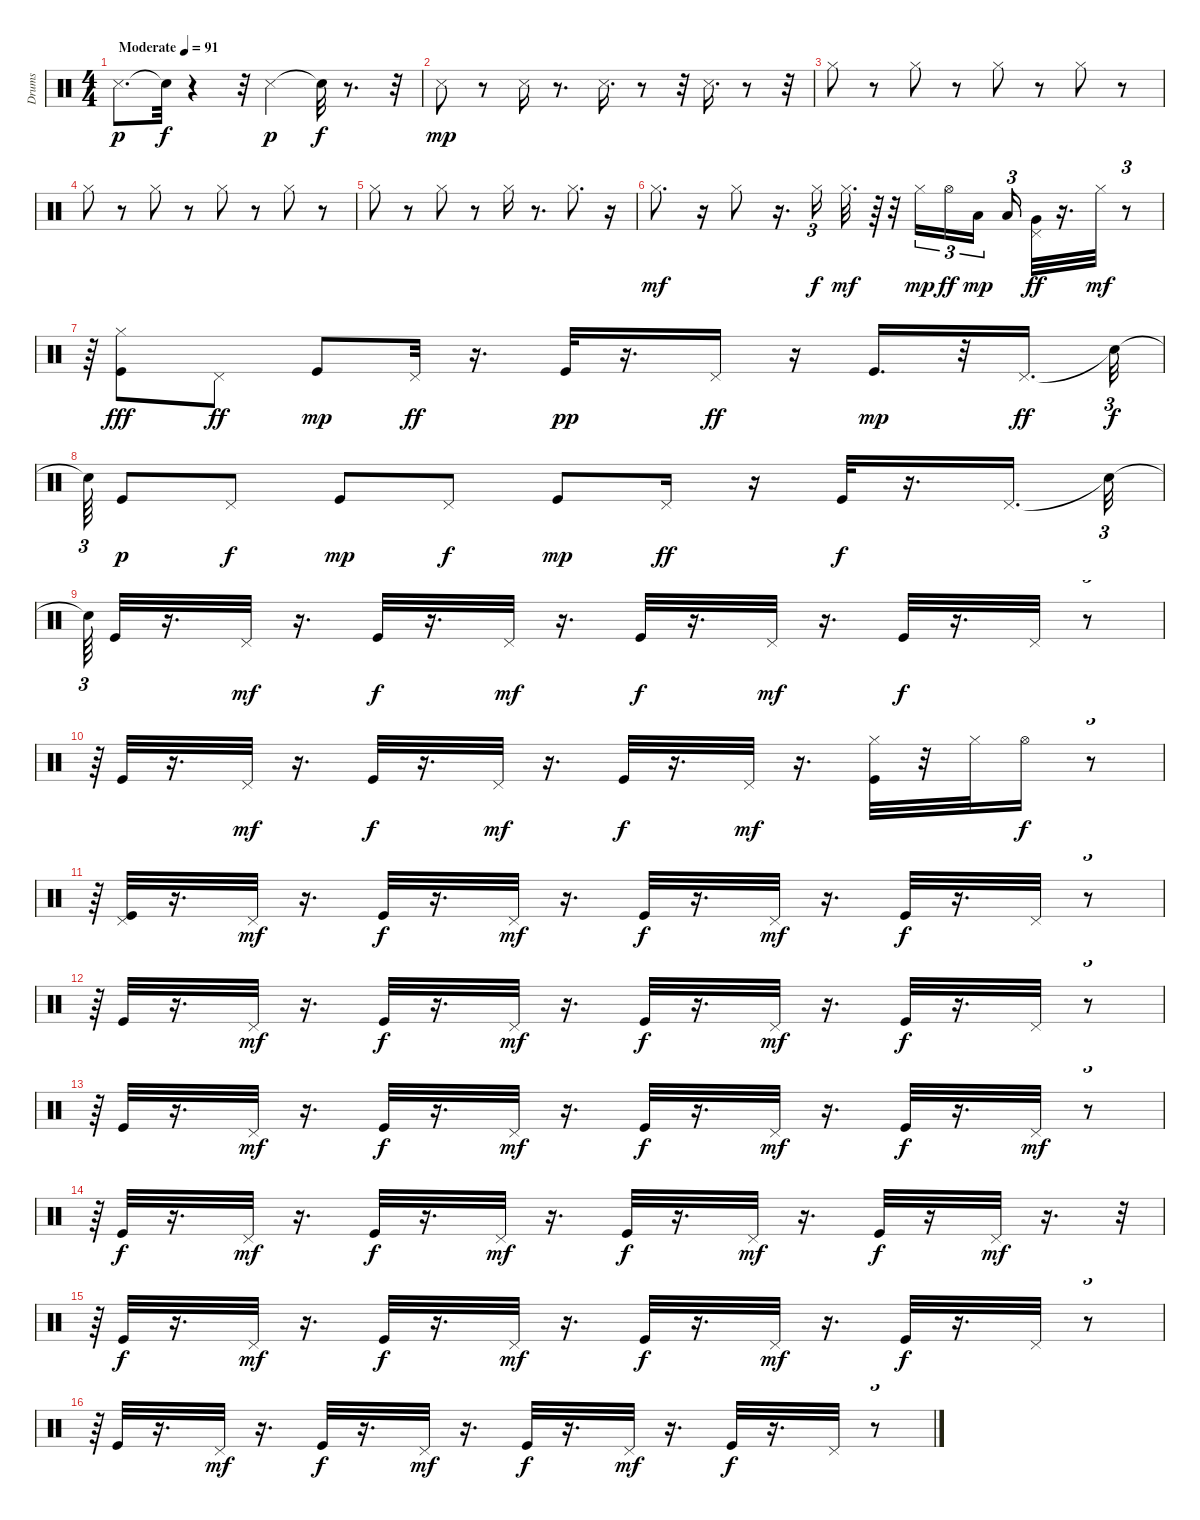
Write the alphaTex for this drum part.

\track ("Drums" "Drums") {instrument percussion}
\staff {score}
\articulation defaults
\ts (4 4)
\tempo (91 "Moderate")
\clef neutral
\ks c "Snare (side stick) 3".8{d dy p} "Snare (hit)"{t}.32{dy f}
r.4 r.32 "Snare (side stick) 3".4{dy p} "Snare (hit)"{t}.32{dy f} r.8{d} r.32 |
"Snare (side stick) 3".8{dy mp} r.8 "Snare (side stick) 3".16 r.8{d} "Snare (side stick) 3".16{d} r.8 r.32 "Snare (side stick) 3".16{d} r.8 r.32 |
"Hi-Hat (closed)".8 r.8 "Hi-Hat (closed)".8 r.8 "Hi-Hat (closed)".8 r.8 "Hi-Hat (closed)".8 r.8 |
"Hi-Hat (closed)".8 r.8 "Hi-Hat (closed)".8 r.8 "Hi-Hat (closed)".8 r.8 "Hi-Hat (closed)".8 r.8 |
"Hi-Hat (closed)".8 r.8 "Hi-Hat (closed)".8 r.8 "Hi-Hat (closed)".16 r.8{d} "Hi-Hat (closed)".8{d} r.16 |
"Hi-Hat (closed)".8{d dy mf} r.16 "Hi-Hat (closed)".8 r.16{d} "Hi-Hat (closed)".16{tu (3 2) dy f} "Hi-Hat (closed)".32{d dy mf} r.64 r.32 "Hi-Hat (closed)".16{tu (3 2) dy mp} "Hi-Hat (open)".16{tu (3 2) dy ff} "Low Tom (hit)".16{tu (3 2) dy mp} "Low Tom (hit)".16{tu (3 2)} ("Very Low Tom (hit)" "Pedal Hi-Hat (hit)").32{dy ff} r.16{d} "Hi-Hat (closed)".32{dy mf} r.8{tu (3 2)} |
r.64{tu (3 2)} ("Kick (hit)" "Hi-Hat (closed)").8{dy fff} "Pedal Hi-Hat (hit)".8{dy ff} "Kick (hit)".8{dy mp} "Pedal Hi-Hat (hit)".32{dy ff} r.16{d} "Kick (hit)".32{dy pp} r.16{d} "Pedal Hi-Hat (hit)".16{dy ff} r.16 "Kick (hit)".16{d dy mp} r.32 "Pedal Hi-Hat (hit)".16{d dy ff} "Snare (hit)"{t}.32{tu (3 2) dy f} |
"Snare (hit)"{t}.64{tu (3 2)} "Kick (hit)".8{dy p} "Pedal Hi-Hat (hit)".8{dy f} "Kick (hit)".8{dy mp} "Pedal Hi-Hat (hit)".8{dy f} "Kick (hit)".8{dy mp} "Pedal Hi-Hat (hit)".16{dy ff} r.16 "Kick (hit)".32{dy f} r.16{d} "Pedal Hi-Hat (hit)".16{d} "Snare (hit)"{t}.32{tu (3 2)} |
"Snare (hit)"{t}.64{tu (3 2)} "Kick (hit)".32 r.16{d} "Pedal Hi-Hat (hit)".32{dy mf} r.16{d} "Kick (hit)".32{dy f} r.16{d} "Pedal Hi-Hat (hit)".32{dy mf} r.16{d} "Kick (hit)".32{dy f} r.16{d} "Pedal Hi-Hat (hit)".32{dy mf} r.16{d} "Kick (hit)".32{dy f} r.16{d} "Pedal Hi-Hat (hit)".32 r.8{tu (3 2)} |
r.64{tu (3 2)} "Kick (hit)".32 r.16{d} "Pedal Hi-Hat (hit)".32{dy mf} r.16{d} "Kick (hit)".32{dy f} r.16{d} "Pedal Hi-Hat (hit)".32{dy mf} r.16{d} "Kick (hit)".32{dy f} r.16{d} "Pedal Hi-Hat (hit)".32{dy mf} r.16{d} ("Hi-Hat (closed)" "Kick (hit)").32 r.32 "Hi-Hat (closed)".32 "Hi-Hat (open)".16{dy f} r.8{tu (3 2)} |
r.64{tu (3 2)} ("Pedal Hi-Hat (hit)" "Kick (hit)").32 r.16{d} "Pedal Hi-Hat (hit)".32{dy mf} r.16{d} "Kick (hit)".32{dy f} r.16{d} "Pedal Hi-Hat (hit)".32{dy mf} r.16{d} "Kick (hit)".32{dy f} r.16{d} "Pedal Hi-Hat (hit)".32{dy mf} r.16{d} "Kick (hit)".32{dy f} r.16{d} "Pedal Hi-Hat (hit)".32 r.8{tu (3 2)} |
r.64{tu (3 2)} "Kick (hit)".32 r.16{d} "Pedal Hi-Hat (hit)".32{dy mf} r.16{d} "Kick (hit)".32{dy f} r.16{d} "Pedal Hi-Hat (hit)".32{dy mf} r.16{d} "Kick (hit)".32{dy f} r.16{d} "Pedal Hi-Hat (hit)".32{dy mf} r.16{d} "Kick (hit)".32{dy f} r.16{d} "Pedal Hi-Hat (hit)".32 r.8{tu (3 2)} |
r.64{tu (3 2)} "Kick (hit)".32 r.16{d} "Pedal Hi-Hat (hit)".32{dy mf} r.16{d} "Kick (hit)".32{dy f} r.16{d} "Pedal Hi-Hat (hit)".32{dy mf} r.16{d} "Kick (hit)".32{dy f} r.16{d} "Pedal Hi-Hat (hit)".32{dy mf} r.16{d} "Kick (hit)".32{dy f} r.16{d} "Pedal Hi-Hat (hit)".32{dy mf} r.8{tu (3 2)} |
r.64{tu (3 2)} "Kick (hit)".32{dy f} r.16{d} "Pedal Hi-Hat (hit)".32{dy mf} r.16{d} "Kick (hit)".32{dy f} r.16{d} "Pedal Hi-Hat (hit)".32{dy mf} r.16{d} "Kick (hit)".32{dy f} r.16{d} "Pedal Hi-Hat (hit)".32{dy mf} r.16{d} "Kick (hit)".32{dy f} r.16 "Pedal Hi-Hat (hit)".32{dy mf} r.16{d} r.32{tu (3 2)} |
r.64{tu (3 2)} "Kick (hit)".32{dy f} r.16{d} "Pedal Hi-Hat (hit)".32{dy mf} r.16{d} "Kick (hit)".32{dy f} r.16{d} "Pedal Hi-Hat (hit)".32{dy mf} r.16{d} "Kick (hit)".32{dy f} r.16{d} "Pedal Hi-Hat (hit)".32{dy mf} r.16{d} "Kick (hit)".32{dy f} r.16{d} "Pedal Hi-Hat (hit)".32 r.8{tu (3 2)} |
r.64{tu (3 2)} "Kick (hit)".32 r.16{d} "Pedal Hi-Hat (hit)".32{dy mf} r.16{d} "Kick (hit)".32{dy f} r.16{d} "Pedal Hi-Hat (hit)".32{dy mf} r.16{d} "Kick (hit)".32{dy f} r.16{d} "Pedal Hi-Hat (hit)".32{dy mf} r.16{d} "Kick (hit)".32{dy f} r.16{d} "Pedal Hi-Hat (hit)".32 r.8{tu (3 2)}
